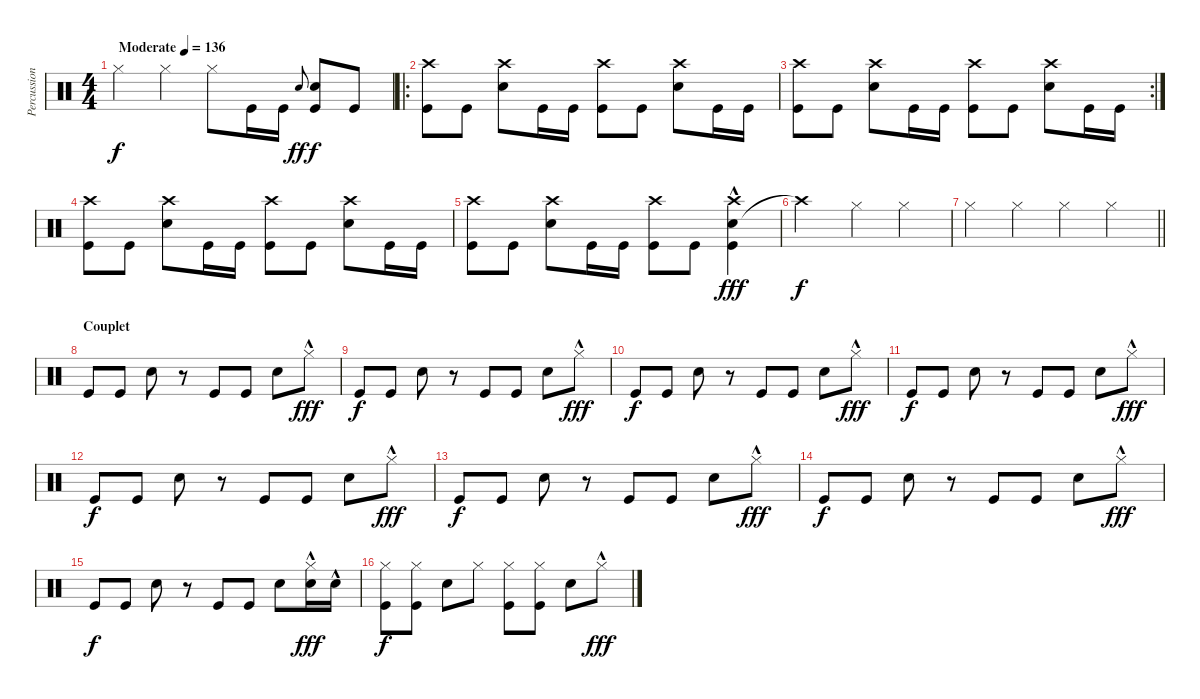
\track ("Percussions" "Percussion") {instrument percussion}
\staff {score}
\articulation defaults
\ts (4 4)
\tempo (136 "Moderate")
\clef neutral
\ks c "Hi-Hat (closed)".4{dy f} "Hi-Hat (closed)".4 "Hi-Hat (closed)".8 "Kick (hit)".16 "Kick (hit)".16 "Snare (hit) 2".8{gr onbeat dy ff}
("Snare (hit) 2" "Kick (hit)").8{dy f} "Kick (hit)".8 |
\ro
("Crash high (hit)" "Kick (hit)").8 "Kick (hit)".8 ("Snare (hit) 2" "Crash high (hit)").8 "Kick (hit)".16 "Kick (hit)".16 ("Crash high (hit)" "Kick (hit)").8 "Kick (hit)".8 ("Snare (hit) 2" "Crash high (hit)").8 "Kick (hit)".16 "Kick (hit)".16 |
\rc 2
("Crash high (hit)" "Kick (hit)").8 "Kick (hit)".8 ("Snare (hit) 2" "Crash high (hit)").8 "Kick (hit)".16 "Kick (hit)".16 ("Crash high (hit)" "Kick (hit)").8 "Kick (hit)".8 ("Snare (hit) 2" "Crash high (hit)").8 "Kick (hit)".16 "Kick (hit)".16 |
("Crash high (hit)" "Kick (hit)").8 "Kick (hit)".8 ("Snare (hit) 2" "Crash high (hit)").8 "Kick (hit)".16 "Kick (hit)".16 ("Crash high (hit)" "Kick (hit)").8 "Kick (hit)".8 ("Snare (hit) 2" "Crash high (hit)").8 "Kick (hit)".16 "Kick (hit)".16 |
("Crash high (hit)" "Kick (hit)").8 "Kick (hit)".8 ("Snare (hit) 2" "Crash high (hit)").8 "Kick (hit)".16 "Kick (hit)".16 ("Crash high (hit)" "Kick (hit)").8 "Kick (hit)".8 ("Snare (hit) 2" "Crash high (hit)"{hac} "Kick (hit)").4{dy fff} |
"Crash high (hit)"{t}.2{dy f} "Hi-Hat (closed)".4 "Hi-Hat (closed)".4 |
\barLineRight lightlight "Hi-Hat (closed)".4 "Hi-Hat (closed)".4 "Hi-Hat (closed)".4 "Hi-Hat (closed)".4
|
\section ("" "Couplet")
"Kick (hit)".8 "Kick (hit)".8 "Snare (hit) 2".8 r.8 "Kick (hit)".8 "Kick (hit)".8 "Snare (hit) 2".8 "Hi-Hat (closed)"{hac}.8{dy fff} |
"Kick (hit)".8{dy f} "Kick (hit)".8 "Snare (hit) 2".8 r.8 "Kick (hit)".8 "Kick (hit)".8 "Snare (hit) 2".8 "Hi-Hat (closed)"{hac}.8{dy fff} |
"Kick (hit)".8{dy f} "Kick (hit)".8 "Snare (hit) 2".8 r.8 "Kick (hit)".8 "Kick (hit)".8 "Snare (hit) 2".8 "Hi-Hat (closed)"{hac}.8{dy fff} |
"Kick (hit)".8{dy f} "Kick (hit)".8 "Snare (hit) 2".8 r.8 "Kick (hit)".8 "Kick (hit)".8 "Snare (hit) 2".8 "Hi-Hat (closed)"{hac}.8{dy fff} |
"Kick (hit)".8{dy f} "Kick (hit)".8 "Snare (hit) 2".8 r.8 "Kick (hit)".8 "Kick (hit)".8 "Snare (hit) 2".8 "Hi-Hat (closed)"{hac}.8{dy fff} |
"Kick (hit)".8{dy f} "Kick (hit)".8 "Snare (hit) 2".8 r.8 "Kick (hit)".8 "Kick (hit)".8 "Snare (hit) 2".8 "Hi-Hat (closed)"{hac}.8{dy fff} |
"Kick (hit)".8{dy f} "Kick (hit)".8 "Snare (hit) 2".8 r.8 "Kick (hit)".8 "Kick (hit)".8 "Snare (hit) 2".8 "Hi-Hat (closed)"{hac}.8{dy fff} |
"Kick (hit)".8{dy f} "Kick (hit)".8 "Snare (hit) 2".8 r.8 "Kick (hit)".8 "Kick (hit)".8 "Snare (hit) 2".8 ("Hi-Hat (closed)"{hac} "Snare (hit) 2"{hac}).16{dy fff} "Snare (hit) 2"{hac}.16 |
("Kick (hit)" "Hi-Hat (closed)").8{dy f} ("Kick (hit)" "Hi-Hat (closed)").8 "Snare (hit) 2".8 "Hi-Hat (closed)".8 ("Kick (hit)" "Hi-Hat (closed)").8 ("Kick (hit)" "Hi-Hat (closed)").8 "Snare (hit) 2".8 "Hi-Hat (closed)"{hac}.8{dy fff}
